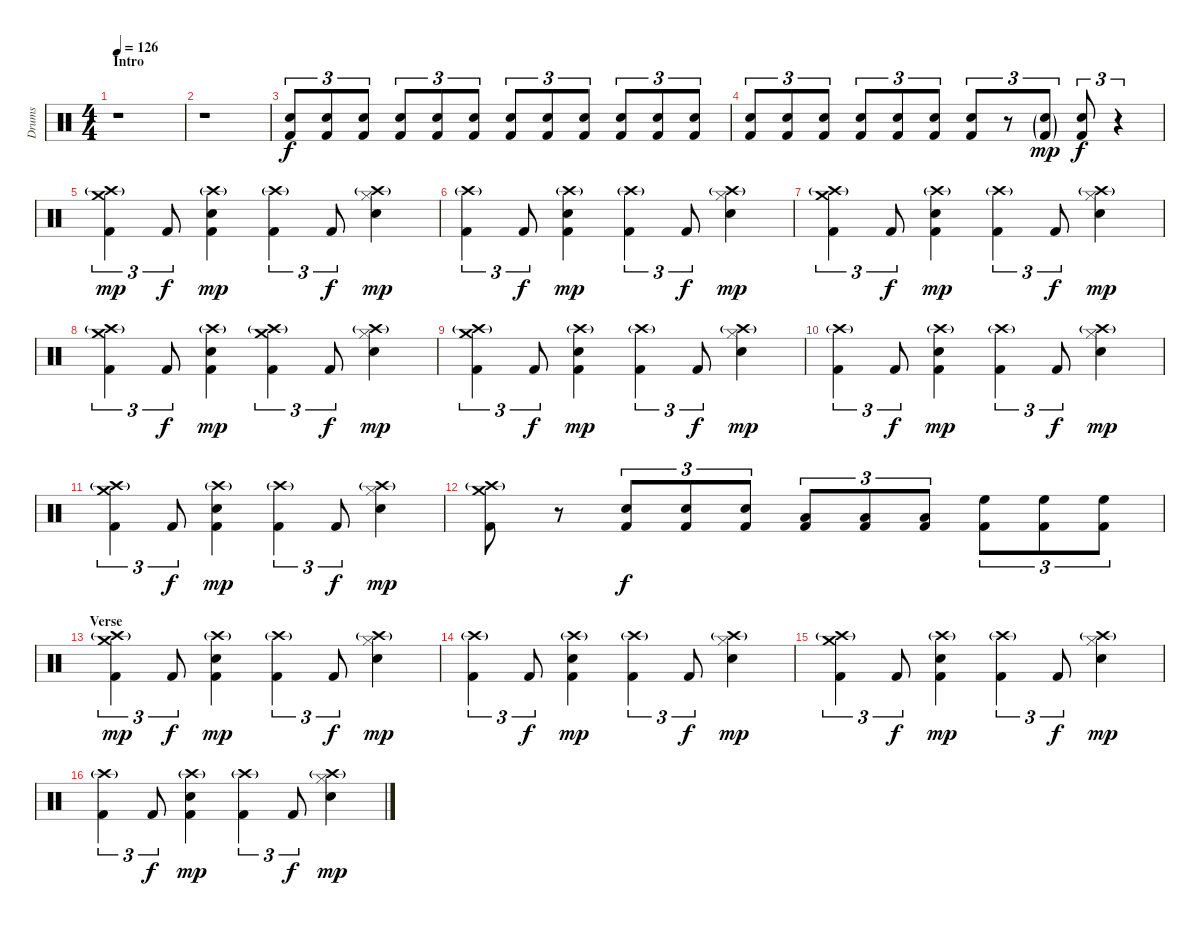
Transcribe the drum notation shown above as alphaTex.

\track ("Drums" "Drums") {instrument percussion}
\staff {score}
\articulation defaults
\ts (4 4)
\section ("" "Intro")
\tempo 126
\clef neutral
\ks c
r.1{dy f} |
r.1 |
("Kick (hit) 2" "Snare (hit) 2").8{tu (3 2) volume 8} ("Kick (hit) 2" "Snare (hit) 2").8{tu (3 2)} ("Kick (hit) 2" "Snare (hit) 2").8{tu (3 2)} ("Kick (hit) 2" "Snare (hit) 2").8{tu (3 2) volume 10} ("Kick (hit) 2" "Snare (hit) 2").8{tu (3 2)} ("Kick (hit) 2" "Snare (hit) 2").8{tu (3 2)} ("Kick (hit) 2" "Snare (hit) 2").8{tu (3 2) volume 12} ("Kick (hit) 2" "Snare (hit) 2").8{tu (3 2)} ("Kick (hit) 2" "Snare (hit) 2").8{tu (3 2)} ("Kick (hit) 2" "Snare (hit) 2").8{tu (3 2) volume 14} ("Kick (hit) 2" "Snare (hit) 2").8{tu (3 2)} ("Kick (hit) 2" "Snare (hit) 2").8{tu (3 2)} |
("Kick (hit) 2" "Snare (hit) 2").8{tu (3 2)} ("Kick (hit) 2" "Snare (hit) 2").8{tu (3 2)} ("Kick (hit) 2" "Snare (hit) 2").8{tu (3 2)} ("Kick (hit) 2" "Snare (hit) 2").8{tu (3 2)} ("Kick (hit) 2" "Snare (hit) 2").8{tu (3 2)} ("Kick (hit) 2" "Snare (hit) 2").8{tu (3 2)} ("Kick (hit) 2" "Snare (hit) 2").8{tu (3 2)} r.8{tu (3 2)} ("Kick (hit) 2"{g} "Snare (hit) 2"{g}).8{tu (3 2) dy mp volume 16} ("Kick (hit) 2" "Snare (hit) 2").8{tu (3 2) dy f} r.4{tu (3 2)} |
("Kick (hit) 2" "Crash medium (hit)" "Crash high (hit)"{g}).4{tu (3 2) dy mp volume 16} "Kick (hit) 2".8{tu (3 2) dy f} ("Kick (hit) 2" "Snare (hit) 2" "Crash high (hit)"{g}).4{dy mp} ("Kick (hit) 2" "Crash high (hit)"{g}).4{tu (3 2)} "Kick (hit) 2".8{tu (3 2) dy f} ("Hi-Hat (closed)" "Snare (hit) 2" "Crash high (hit)"{g}).4{dy mp} |
("Kick (hit) 2" "Crash high (hit)"{g}).4{tu (3 2)} "Kick (hit) 2".8{tu (3 2) dy f} ("Kick (hit) 2" "Snare (hit) 2" "Crash high (hit)"{g}).4{dy mp} ("Kick (hit) 2" "Crash high (hit)"{g}).4{tu (3 2)} "Kick (hit) 2".8{tu (3 2) dy f} ("Hi-Hat (closed)" "Snare (hit) 2" "Crash high (hit)"{g}).4{dy mp} |
("Kick (hit) 2" "Crash medium (hit)" "Crash high (hit)"{g}).4{tu (3 2)} "Kick (hit) 2".8{tu (3 2) dy f} ("Kick (hit) 2" "Snare (hit) 2" "Crash high (hit)"{g}).4{dy mp} ("Kick (hit) 2" "Crash high (hit)"{g}).4{tu (3 2)} "Kick (hit) 2".8{tu (3 2) dy f} ("Hi-Hat (closed)" "Snare (hit) 2" "Crash high (hit)"{g}).4{dy mp} |
("Kick (hit) 2" "Crash medium (hit)" "Crash high (hit)"{g}).4{tu (3 2)} "Kick (hit) 2".8{tu (3 2) dy f} ("Kick (hit) 2" "Snare (hit) 2" "Crash high (hit)"{g}).4{dy mp} ("Kick (hit) 2" "Crash medium (hit)" "Crash high (hit)"{g}).4{tu (3 2)} "Kick (hit) 2".8{tu (3 2) dy f} ("Hi-Hat (closed)" "Snare (hit) 2" "Crash high (hit)"{g}).4{dy mp} |
("Kick (hit) 2" "Crash medium (hit)" "Crash high (hit)"{g}).4{tu (3 2) volume 16} "Kick (hit) 2".8{tu (3 2) dy f} ("Kick (hit) 2" "Snare (hit) 2" "Crash high (hit)"{g}).4{dy mp} ("Kick (hit) 2" "Crash high (hit)"{g}).4{tu (3 2)} "Kick (hit) 2".8{tu (3 2) dy f} ("Hi-Hat (closed)" "Snare (hit) 2" "Crash high (hit)"{g}).4{dy mp} |
("Kick (hit) 2" "Crash high (hit)"{g}).4{tu (3 2)} "Kick (hit) 2".8{tu (3 2) dy f} ("Kick (hit) 2" "Snare (hit) 2" "Crash high (hit)"{g}).4{dy mp} ("Kick (hit) 2" "Crash high (hit)"{g}).4{tu (3 2)} "Kick (hit) 2".8{tu (3 2) dy f} ("Hi-Hat (closed)" "Snare (hit) 2" "Crash high (hit)"{g}).4{dy mp} |
("Kick (hit) 2" "Crash medium (hit)" "Crash high (hit)"{g}).4{tu (3 2)} "Kick (hit) 2".8{tu (3 2) dy f} ("Kick (hit) 2" "Snare (hit) 2" "Crash high (hit)"{g}).4{dy mp} ("Kick (hit) 2" "Crash high (hit)"{g}).4{tu (3 2)} "Kick (hit) 2".8{tu (3 2) dy f} ("Hi-Hat (closed)" "Snare (hit) 2" "Crash high (hit)"{g}).4{dy mp} |
("Kick (hit) 2" "Crash medium (hit)" "Crash high (hit)"{g}).8 r.8 ("Kick (hit) 2" "Snare (hit) 2").8{tu (3 2) dy f} ("Kick (hit) 2" "Snare (hit) 2").8{tu (3 2)} ("Kick (hit) 2" "Snare (hit) 2").8{tu (3 2)} ("Kick (hit) 2" "Low Tom (hit)").8{tu (3 2)} ("Kick (hit) 2" "Low Tom (hit)").8{tu (3 2)} ("Kick (hit) 2" "Low Tom (hit)").8{tu (3 2)} ("Kick (hit) 2" "High Floor Tom (hit)").8{tu (3 2)} ("Kick (hit) 2" "High Floor Tom (hit)").8{tu (3 2)} ("Kick (hit) 2" "High Floor Tom (hit)").8{tu (3 2)} |
\section ("" "Verse")
("Kick (hit) 2" "Crash medium (hit)" "Crash high (hit)"{g}).4{tu (3 2) dy mp volume 16} "Kick (hit) 2".8{tu (3 2) dy f} ("Kick (hit) 2" "Snare (hit) 2" "Crash high (hit)"{g}).4{dy mp} ("Kick (hit) 2" "Crash high (hit)"{g}).4{tu (3 2)} "Kick (hit) 2".8{tu (3 2) dy f} ("Hi-Hat (closed)" "Snare (hit) 2" "Crash high (hit)"{g}).4{dy mp} |
("Kick (hit) 2" "Crash high (hit)"{g}).4{tu (3 2)} "Kick (hit) 2".8{tu (3 2) dy f} ("Kick (hit) 2" "Snare (hit) 2" "Crash high (hit)"{g}).4{dy mp} ("Kick (hit) 2" "Crash high (hit)"{g}).4{tu (3 2)} "Kick (hit) 2".8{tu (3 2) dy f} ("Hi-Hat (closed)" "Snare (hit) 2" "Crash high (hit)"{g}).4{dy mp} |
("Kick (hit) 2" "Crash medium (hit)" "Crash high (hit)"{g}).4{tu (3 2)} "Kick (hit) 2".8{tu (3 2) dy f} ("Kick (hit) 2" "Snare (hit) 2" "Crash high (hit)"{g}).4{dy mp} ("Kick (hit) 2" "Crash high (hit)"{g}).4{tu (3 2)} "Kick (hit) 2".8{tu (3 2) dy f} ("Hi-Hat (closed)" "Snare (hit) 2" "Crash high (hit)"{g}).4{dy mp} |
("Kick (hit) 2" "Crash high (hit)"{g}).4{tu (3 2)} "Kick (hit) 2".8{tu (3 2) dy f} ("Kick (hit) 2" "Snare (hit) 2" "Crash high (hit)"{g}).4{dy mp} ("Kick (hit) 2" "Crash high (hit)"{g}).4{tu (3 2)} "Kick (hit) 2".8{tu (3 2) dy f} ("Hi-Hat (closed)" "Snare (hit) 2" "Crash high (hit)"{g}).4{dy mp}
